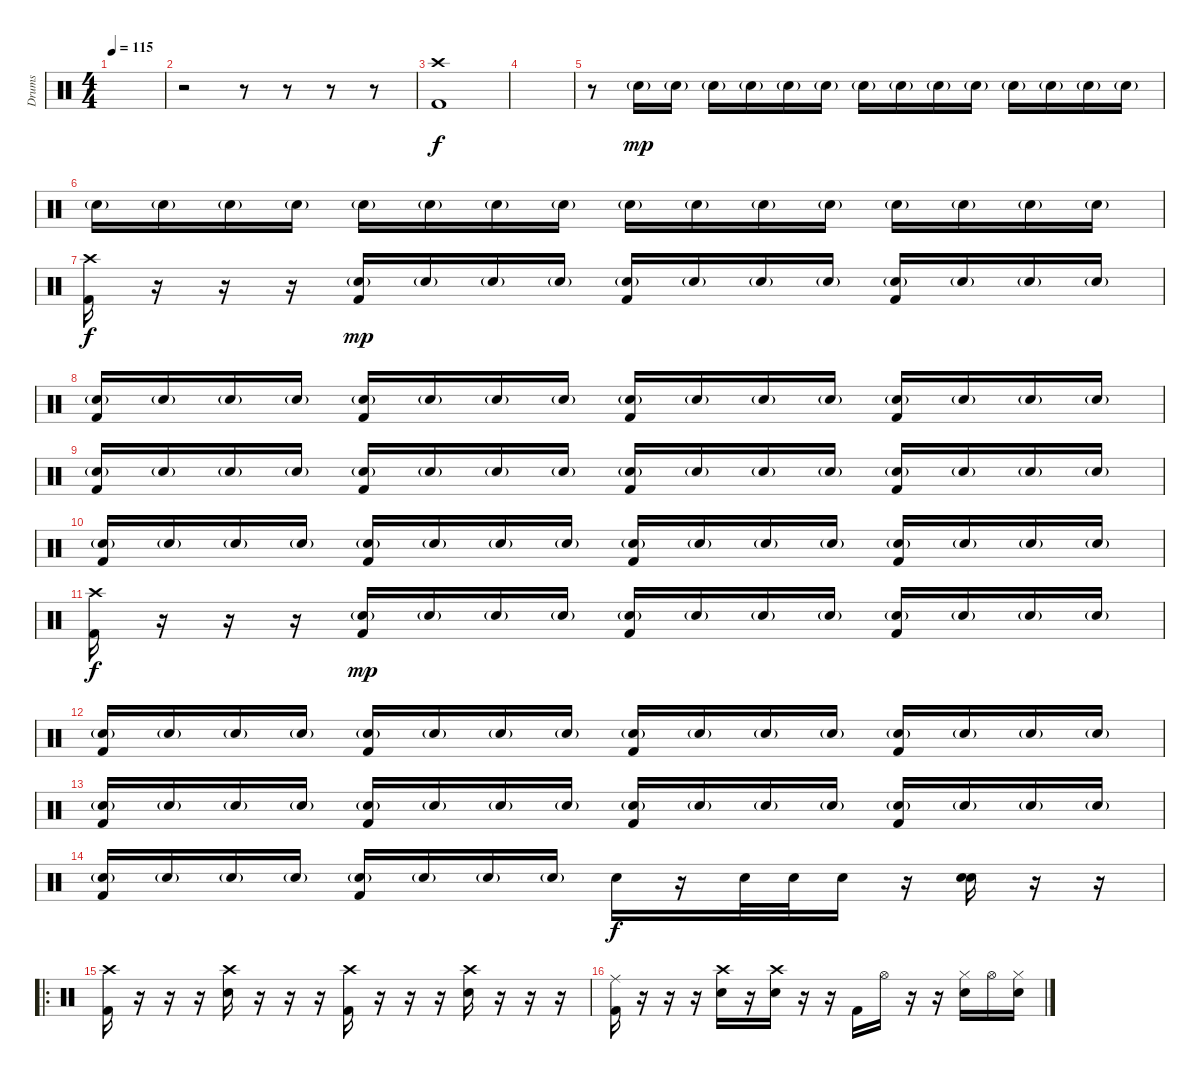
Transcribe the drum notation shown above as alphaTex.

\track ("Drums" "Drums") {instrument percussion}
\staff {score}
\articulation defaults
\ts (4 4)
\tempo 115
\clef neutral
\ks c
|
r.2 r.8 r.8 r.8 r.8 |
("Crash high (hit)" "Kick (hit) 2").1 |
|
r.8{volume 5} "Electric Snare (hit)"{g}.16{dy mp volume 14} "Electric Snare (hit)"{g}.16 "Electric Snare (hit)"{g}.16 "Electric Snare (hit)"{g}.16 "Electric Snare (hit)"{g}.16 "Electric Snare (hit)"{g}.16 "Electric Snare (hit)"{g}.16 "Electric Snare (hit)"{g}.16 "Electric Snare (hit)"{g}.16 "Electric Snare (hit)"{g}.16 "Electric Snare (hit)"{g}.16 "Electric Snare (hit)"{g}.16 "Electric Snare (hit)"{g}.16 "Electric Snare (hit)"{g}.16 |
"Electric Snare (hit)"{g}.16 "Electric Snare (hit)"{g}.16 "Electric Snare (hit)"{g}.16 "Electric Snare (hit)"{g}.16 "Electric Snare (hit)"{g}.16 "Electric Snare (hit)"{g}.16 "Electric Snare (hit)"{g}.16 "Electric Snare (hit)"{g}.16 "Electric Snare (hit)"{g}.16 "Electric Snare (hit)"{g}.16 "Electric Snare (hit)"{g}.16 "Electric Snare (hit)"{g}.16 "Electric Snare (hit)"{g}.16 "Electric Snare (hit)"{g}.16 "Electric Snare (hit)"{g}.16 "Electric Snare (hit)"{g}.16 |
("Crash high (hit)" "Kick (hit) 2").16{dy f volume 9} r.16 r.16 r.16 ("Electric Snare (hit)"{g} "Kick (hit) 2").16{dy mp} "Electric Snare (hit)"{g}.16 "Electric Snare (hit)"{g}.16 "Electric Snare (hit)"{g}.16 ("Electric Snare (hit)"{g} "Kick (hit) 2").16 "Electric Snare (hit)"{g}.16 "Electric Snare (hit)"{g}.16 "Electric Snare (hit)"{g}.16 ("Electric Snare (hit)"{g} "Kick (hit) 2").16 "Electric Snare (hit)"{g}.16 "Electric Snare (hit)"{g}.16 "Electric Snare (hit)"{g}.16 |
("Electric Snare (hit)"{g} "Kick (hit) 2").16 "Electric Snare (hit)"{g}.16 "Electric Snare (hit)"{g}.16 "Electric Snare (hit)"{g}.16 ("Electric Snare (hit)"{g} "Kick (hit) 2").16 "Electric Snare (hit)"{g}.16 "Electric Snare (hit)"{g}.16 "Electric Snare (hit)"{g}.16 ("Electric Snare (hit)"{g} "Kick (hit) 2").16 "Electric Snare (hit)"{g}.16 "Electric Snare (hit)"{g}.16 "Electric Snare (hit)"{g}.16 ("Electric Snare (hit)"{g} "Kick (hit) 2").16 "Electric Snare (hit)"{g}.16 "Electric Snare (hit)"{g}.16 "Electric Snare (hit)"{g}.16 |
("Electric Snare (hit)"{g} "Kick (hit) 2").16{volume 14} "Electric Snare (hit)"{g}.16 "Electric Snare (hit)"{g}.16 "Electric Snare (hit)"{g}.16 ("Electric Snare (hit)"{g} "Kick (hit) 2").16 "Electric Snare (hit)"{g}.16 "Electric Snare (hit)"{g}.16 "Electric Snare (hit)"{g}.16 ("Electric Snare (hit)"{g} "Kick (hit) 2").16 "Electric Snare (hit)"{g}.16 "Electric Snare (hit)"{g}.16 "Electric Snare (hit)"{g}.16 ("Electric Snare (hit)"{g} "Kick (hit) 2").16 "Electric Snare (hit)"{g}.16 "Electric Snare (hit)"{g}.16 "Electric Snare (hit)"{g}.16 |
("Electric Snare (hit)"{g} "Kick (hit) 2").16 "Electric Snare (hit)"{g}.16 "Electric Snare (hit)"{g}.16 "Electric Snare (hit)"{g}.16 ("Electric Snare (hit)"{g} "Kick (hit) 2").16 "Electric Snare (hit)"{g}.16 "Electric Snare (hit)"{g}.16 "Electric Snare (hit)"{g}.16 ("Electric Snare (hit)"{g} "Kick (hit) 2").16 "Electric Snare (hit)"{g}.16 "Electric Snare (hit)"{g}.16 "Electric Snare (hit)"{g}.16 ("Electric Snare (hit)"{g} "Kick (hit) 2").16 "Electric Snare (hit)"{g}.16 "Electric Snare (hit)"{g}.16 "Electric Snare (hit)"{g}.16 |
("Crash high (hit)" "Kick (hit) 2").16{dy f volume 9} r.16 r.16 r.16 ("Electric Snare (hit)"{g} "Kick (hit) 2").16{dy mp} "Electric Snare (hit)"{g}.16 "Electric Snare (hit)"{g}.16 "Electric Snare (hit)"{g}.16 ("Electric Snare (hit)"{g} "Kick (hit) 2").16 "Electric Snare (hit)"{g}.16 "Electric Snare (hit)"{g}.16 "Electric Snare (hit)"{g}.16 ("Electric Snare (hit)"{g} "Kick (hit) 2").16 "Electric Snare (hit)"{g}.16 "Electric Snare (hit)"{g}.16 "Electric Snare (hit)"{g}.16 |
("Electric Snare (hit)"{g} "Kick (hit) 2").16 "Electric Snare (hit)"{g}.16 "Electric Snare (hit)"{g}.16 "Electric Snare (hit)"{g}.16 ("Electric Snare (hit)"{g} "Kick (hit) 2").16 "Electric Snare (hit)"{g}.16 "Electric Snare (hit)"{g}.16 "Electric Snare (hit)"{g}.16 ("Electric Snare (hit)"{g} "Kick (hit) 2").16 "Electric Snare (hit)"{g}.16 "Electric Snare (hit)"{g}.16 "Electric Snare (hit)"{g}.16 ("Electric Snare (hit)"{g} "Kick (hit) 2").16 "Electric Snare (hit)"{g}.16 "Electric Snare (hit)"{g}.16 "Electric Snare (hit)"{g}.16 |
("Electric Snare (hit)"{g} "Kick (hit) 2").16{volume 14} "Electric Snare (hit)"{g}.16 "Electric Snare (hit)"{g}.16 "Electric Snare (hit)"{g}.16 ("Electric Snare (hit)"{g} "Kick (hit) 2").16 "Electric Snare (hit)"{g}.16 "Electric Snare (hit)"{g}.16 "Electric Snare (hit)"{g}.16 ("Electric Snare (hit)"{g} "Kick (hit) 2").16 "Electric Snare (hit)"{g}.16 "Electric Snare (hit)"{g}.16 "Electric Snare (hit)"{g}.16 ("Electric Snare (hit)"{g} "Kick (hit) 2").16 "Electric Snare (hit)"{g}.16 "Electric Snare (hit)"{g}.16 "Electric Snare (hit)"{g}.16 |
("Electric Snare (hit)"{g} "Kick (hit) 2").16 "Electric Snare (hit)"{g}.16 "Electric Snare (hit)"{g}.16 "Electric Snare (hit)"{g}.16 ("Electric Snare (hit)"{g} "Kick (hit) 2").16 "Electric Snare (hit)"{g}.16 "Electric Snare (hit)"{g}.16 "Electric Snare (hit)"{g}.16 "Electric Snare (hit)".16{dy f} r.16 "Electric Snare (hit)".32 "Electric Snare (hit)".32 "Electric Snare (hit)".16 r.16 ("Electric Snare (hit)" "Electric Snare (hit)").16 r.16 r.16 |
\ro
("Crash high (hit)" "Kick (hit) 2").16 r.16 r.16 r.16 ("Crash high (hit)" "Electric Snare (hit)").16 r.16 r.16 r.16 ("Crash high (hit)" "Kick (hit) 2").16 r.16 r.16 r.16 ("Crash high (hit)" "Electric Snare (hit)").16 r.16 r.16 r.16 |
("Ride (middle)" "Kick (hit) 2").16 r.16 r.16 r.16 ("Crash high (hit)" "Electric Snare (hit)").16 r.16 ("Crash high (hit)" "Electric Snare (hit)").16 r.16 r.16 "Kick (hit) 2".16 "Hi-Hat (open)".16 r.16 r.16 ("Hi-Hat (closed)" "Electric Snare (hit)").16 "Hi-Hat (open)".16 ("Hi-Hat (closed)" "Electric Snare (hit)").16
